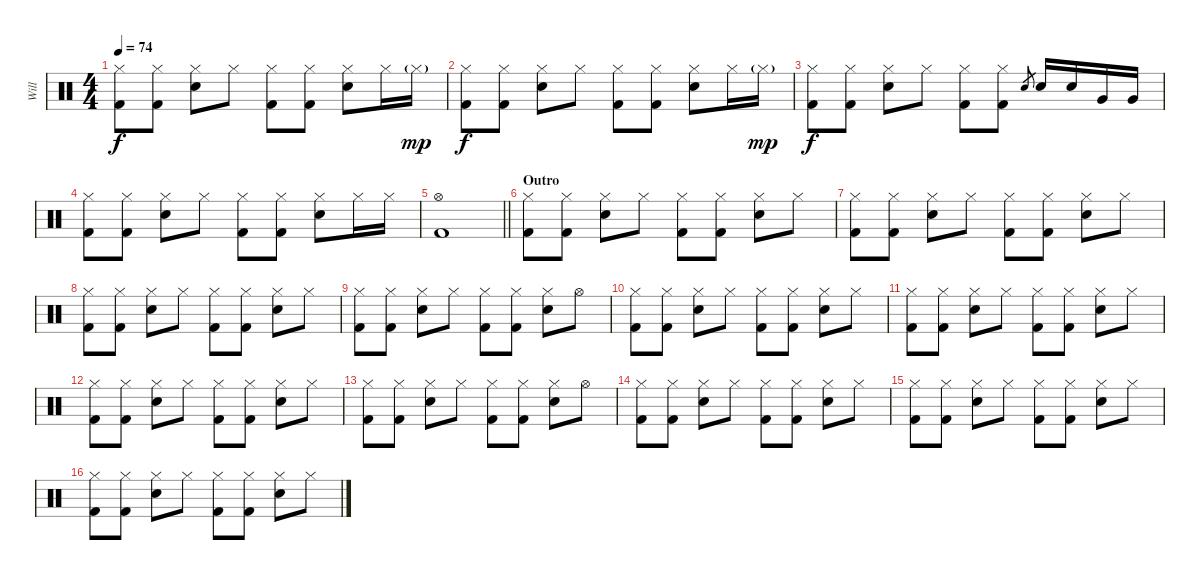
\track ("Will" "Will") {instrument percussion}
\staff {score}
\articulation defaults
\ts (4 4)
\tempo 74
\clef neutral
\ks c
("Hi-Hat (closed)" "Kick (hit) 2").8{dy f} ("Hi-Hat (closed)" "Kick (hit) 2").8 ("Hi-Hat (closed)" "Electric Snare (hit)").8 "Hi-Hat (closed)".8 ("Hi-Hat (closed)" "Kick (hit) 2").8 ("Hi-Hat (closed)" "Kick (hit) 2").8 ("Hi-Hat (closed)" "Electric Snare (hit)").8 "Hi-Hat (closed)".16 "Hi-Hat (closed)"{g}.16{dy mp} |
("Hi-Hat (closed)" "Kick (hit) 2").8{dy f} ("Hi-Hat (closed)" "Kick (hit) 2").8 ("Hi-Hat (closed)" "Electric Snare (hit)").8 "Hi-Hat (closed)".8 ("Hi-Hat (closed)" "Kick (hit) 2").8 ("Hi-Hat (closed)" "Kick (hit) 2").8 ("Hi-Hat (closed)" "Electric Snare (hit)").8 "Hi-Hat (closed)".16 "Hi-Hat (closed)"{g}.16{dy mp} |
("Hi-Hat (closed)" "Kick (hit) 2").8{dy f} ("Hi-Hat (closed)" "Kick (hit) 2").8 ("Hi-Hat (closed)" "Electric Snare (hit)").8 "Hi-Hat (closed)".8 ("Hi-Hat (closed)" "Kick (hit) 2").8 ("Hi-Hat (closed)" "Kick (hit) 2").8 "Snare (hit) 2".8{gr} "Electric Snare (hit)".16 "Electric Snare (hit)".16 "Very Low Tom (hit)".16 "Very Low Tom (hit)".16 |
("Hi-Hat (closed)" "Kick (hit) 2").8 ("Hi-Hat (closed)" "Kick (hit) 2").8 ("Hi-Hat (closed)" "Electric Snare (hit)").8 "Hi-Hat (closed)".8 ("Hi-Hat (closed)" "Kick (hit) 2").8 ("Hi-Hat (closed)" "Kick (hit) 2").8 ("Hi-Hat (closed)" "Electric Snare (hit)").8 "Hi-Hat (closed)".16 "Hi-Hat (closed)".16 |
\barLineRight lightlight
("Hi-Hat (open)" "Kick (hit) 2").1 |
\section ("" "Outro")
("Hi-Hat (closed)" "Kick (hit) 2").8 ("Hi-Hat (closed)" "Kick (hit) 2").8 ("Hi-Hat (closed)" "Electric Snare (hit)").8 "Hi-Hat (closed)".8 ("Hi-Hat (closed)" "Kick (hit) 2").8 ("Hi-Hat (closed)" "Kick (hit) 2").8 ("Hi-Hat (closed)" "Electric Snare (hit)").8 "Hi-Hat (closed)".8 |
("Hi-Hat (closed)" "Kick (hit) 2").8 ("Hi-Hat (closed)" "Kick (hit) 2").8 ("Hi-Hat (closed)" "Electric Snare (hit)").8 "Hi-Hat (closed)".8 ("Hi-Hat (closed)" "Kick (hit) 2").8 ("Hi-Hat (closed)" "Kick (hit) 2").8 ("Hi-Hat (closed)" "Electric Snare (hit)").8 "Hi-Hat (closed)".8 |
("Hi-Hat (closed)" "Kick (hit) 2").8 ("Hi-Hat (closed)" "Kick (hit) 2").8 ("Hi-Hat (closed)" "Electric Snare (hit)").8 "Hi-Hat (closed)".8 ("Hi-Hat (closed)" "Kick (hit) 2").8 ("Hi-Hat (closed)" "Kick (hit) 2").8 ("Hi-Hat (closed)" "Electric Snare (hit)").8 "Hi-Hat (closed)".8 |
("Hi-Hat (closed)" "Kick (hit) 2").8 ("Hi-Hat (closed)" "Kick (hit) 2").8 ("Hi-Hat (closed)" "Electric Snare (hit)").8 "Hi-Hat (closed)".8 ("Hi-Hat (closed)" "Kick (hit) 2").8 ("Hi-Hat (closed)" "Kick (hit) 2").8 ("Hi-Hat (closed)" "Electric Snare (hit)").8 "Hi-Hat (open)".8 |
("Hi-Hat (closed)" "Kick (hit) 2").8 ("Hi-Hat (closed)" "Kick (hit) 2").8 ("Hi-Hat (closed)" "Electric Snare (hit)").8 "Hi-Hat (closed)".8 ("Hi-Hat (closed)" "Kick (hit) 2").8 ("Hi-Hat (closed)" "Kick (hit) 2").8 ("Hi-Hat (closed)" "Electric Snare (hit)").8 "Hi-Hat (closed)".8 |
("Hi-Hat (closed)" "Kick (hit) 2").8 ("Hi-Hat (closed)" "Kick (hit) 2").8 ("Hi-Hat (closed)" "Electric Snare (hit)").8 "Hi-Hat (closed)".8 ("Hi-Hat (closed)" "Kick (hit) 2").8 ("Hi-Hat (closed)" "Kick (hit) 2").8 ("Hi-Hat (closed)" "Electric Snare (hit)").8 "Hi-Hat (closed)".8 |
("Hi-Hat (closed)" "Kick (hit) 2").8 ("Hi-Hat (closed)" "Kick (hit) 2").8 ("Hi-Hat (closed)" "Electric Snare (hit)").8 "Hi-Hat (closed)".8 ("Hi-Hat (closed)" "Kick (hit) 2").8 ("Hi-Hat (closed)" "Kick (hit) 2").8 ("Hi-Hat (closed)" "Electric Snare (hit)").8 "Hi-Hat (closed)".8 |
("Hi-Hat (closed)" "Kick (hit) 2").8 ("Hi-Hat (closed)" "Kick (hit) 2").8 ("Hi-Hat (closed)" "Electric Snare (hit)").8 "Hi-Hat (closed)".8 ("Hi-Hat (closed)" "Kick (hit) 2").8 ("Hi-Hat (closed)" "Kick (hit) 2").8 ("Hi-Hat (closed)" "Electric Snare (hit)").8 "Hi-Hat (open)".8 |
("Hi-Hat (closed)" "Kick (hit) 2").8 ("Hi-Hat (closed)" "Kick (hit) 2").8 ("Hi-Hat (closed)" "Electric Snare (hit)").8 "Hi-Hat (closed)".8 ("Hi-Hat (closed)" "Kick (hit) 2").8 ("Hi-Hat (closed)" "Kick (hit) 2").8 ("Hi-Hat (closed)" "Electric Snare (hit)").8 "Hi-Hat (closed)".8 |
("Hi-Hat (closed)" "Kick (hit) 2").8 ("Hi-Hat (closed)" "Kick (hit) 2").8 ("Hi-Hat (closed)" "Electric Snare (hit)").8 "Hi-Hat (closed)".8 ("Hi-Hat (closed)" "Kick (hit) 2").8 ("Hi-Hat (closed)" "Kick (hit) 2").8 ("Hi-Hat (closed)" "Electric Snare (hit)").8 "Hi-Hat (closed)".8 |
("Hi-Hat (closed)" "Kick (hit) 2").8 ("Hi-Hat (closed)" "Kick (hit) 2").8 ("Hi-Hat (closed)" "Electric Snare (hit)").8 "Hi-Hat (closed)".8 ("Hi-Hat (closed)" "Kick (hit) 2").8 ("Hi-Hat (closed)" "Kick (hit) 2").8 ("Hi-Hat (closed)" "Electric Snare (hit)").8 "Hi-Hat (closed)".8
